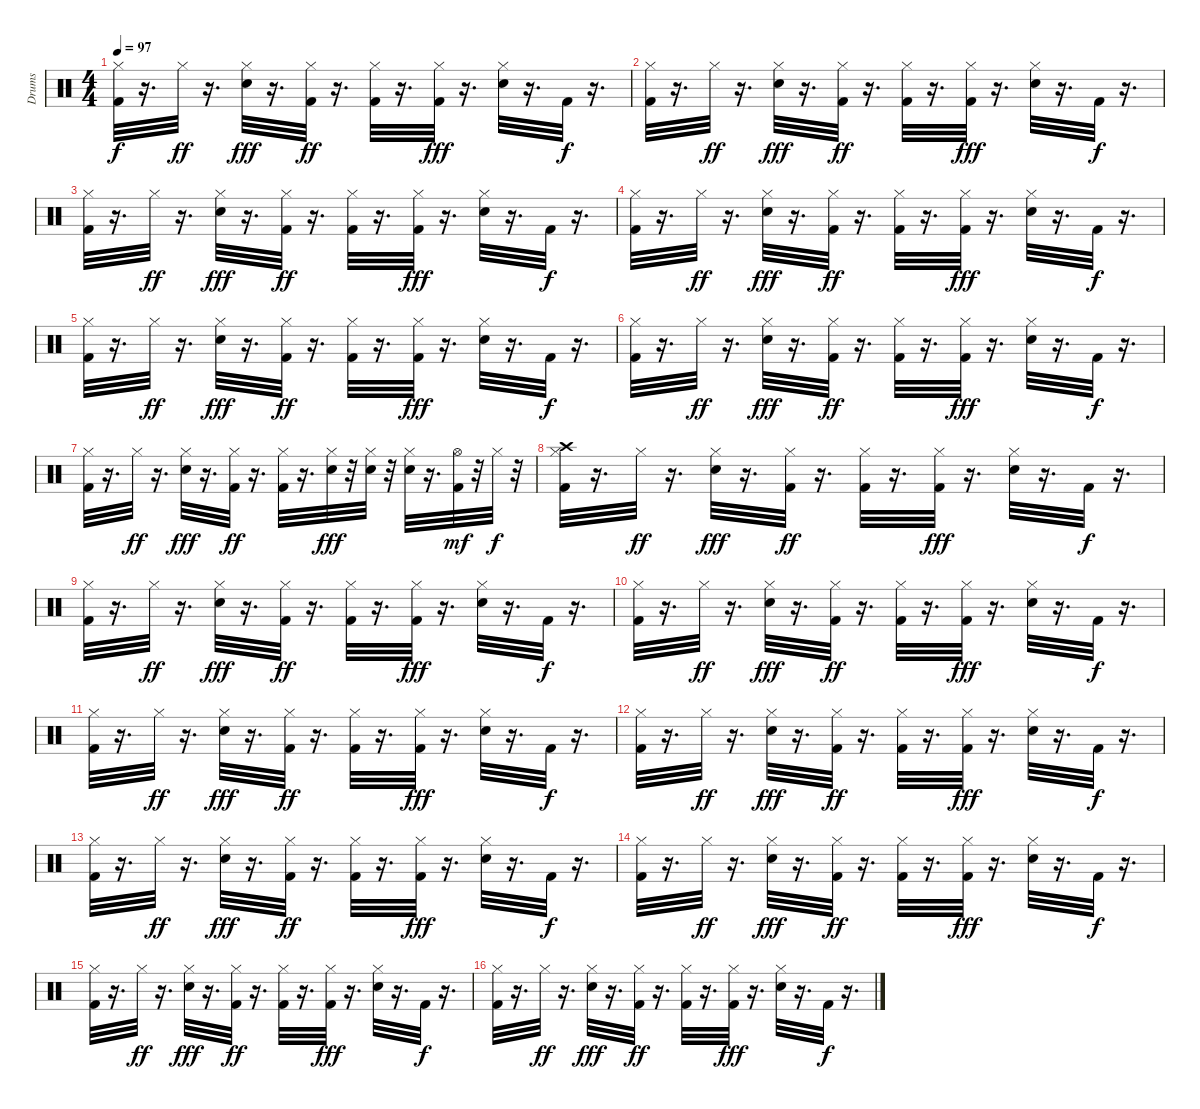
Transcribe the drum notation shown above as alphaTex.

\track ("Drums" "Drums") {instrument percussion}
\staff {score}
\articulation defaults
\ts (4 4)
\tempo 97
\clef neutral
\ks c
("Hi-Hat (closed)" "Kick (hit) 2").32{dy f} r.16{d} "Hi-Hat (closed)".32{dy ff} r.16{d} ("Hi-Hat (closed)" "Electric Snare (hit)").32{dy fff} r.16{d} ("Hi-Hat (closed)" "Kick (hit) 2").32{dy ff} r.16{d} ("Hi-Hat (closed)" "Kick (hit) 2").32 r.16{d} ("Hi-Hat (closed)" "Kick (hit) 2").32{dy fff} r.16{d} ("Hi-Hat (closed)" "Electric Snare (hit)").32 r.16{d} "Kick (hit) 2".32{dy f} r.16{d} |
("Hi-Hat (closed)" "Kick (hit) 2").32 r.16{d} "Hi-Hat (closed)".32{dy ff} r.16{d} ("Hi-Hat (closed)" "Electric Snare (hit)").32{dy fff} r.16{d} ("Hi-Hat (closed)" "Kick (hit) 2").32{dy ff} r.16{d} ("Hi-Hat (closed)" "Kick (hit) 2").32 r.16{d} ("Hi-Hat (closed)" "Kick (hit) 2").32{dy fff} r.16{d} ("Hi-Hat (closed)" "Electric Snare (hit)").32 r.16{d} "Kick (hit) 2".32{dy f} r.16{d} |
("Hi-Hat (closed)" "Kick (hit) 2").32 r.16{d} "Hi-Hat (closed)".32{dy ff} r.16{d} ("Hi-Hat (closed)" "Electric Snare (hit)").32{dy fff} r.16{d} ("Hi-Hat (closed)" "Kick (hit) 2").32{dy ff} r.16{d} ("Hi-Hat (closed)" "Kick (hit) 2").32 r.16{d} ("Hi-Hat (closed)" "Kick (hit) 2").32{dy fff} r.16{d} ("Hi-Hat (closed)" "Electric Snare (hit)").32 r.16{d} "Kick (hit) 2".32{dy f} r.16{d} |
("Hi-Hat (closed)" "Kick (hit) 2").32 r.16{d} "Hi-Hat (closed)".32{dy ff} r.16{d} ("Hi-Hat (closed)" "Electric Snare (hit)").32{dy fff} r.16{d} ("Hi-Hat (closed)" "Kick (hit) 2").32{dy ff} r.16{d} ("Hi-Hat (closed)" "Kick (hit) 2").32 r.16{d} ("Hi-Hat (closed)" "Kick (hit) 2").32{dy fff} r.16{d} ("Hi-Hat (closed)" "Electric Snare (hit)").32 r.16{d} "Kick (hit) 2".32{dy f} r.16{d} |
("Hi-Hat (closed)" "Kick (hit) 2").32 r.16{d} "Hi-Hat (closed)".32{dy ff} r.16{d} ("Hi-Hat (closed)" "Electric Snare (hit)").32{dy fff} r.16{d} ("Hi-Hat (closed)" "Kick (hit) 2").32{dy ff} r.16{d} ("Hi-Hat (closed)" "Kick (hit) 2").32 r.16{d} ("Hi-Hat (closed)" "Kick (hit) 2").32{dy fff} r.16{d} ("Hi-Hat (closed)" "Electric Snare (hit)").32 r.16{d} "Kick (hit) 2".32{dy f} r.16{d} |
("Hi-Hat (closed)" "Kick (hit) 2").32 r.16{d} "Hi-Hat (closed)".32{dy ff} r.16{d} ("Hi-Hat (closed)" "Electric Snare (hit)").32{dy fff} r.16{d} ("Hi-Hat (closed)" "Kick (hit) 2").32{dy ff} r.16{d} ("Hi-Hat (closed)" "Kick (hit) 2").32 r.16{d} ("Hi-Hat (closed)" "Kick (hit) 2").32{dy fff} r.16{d} ("Hi-Hat (closed)" "Electric Snare (hit)").32 r.16{d} "Kick (hit) 2".32{dy f} r.16{d} |
("Hi-Hat (closed)" "Kick (hit) 2").32 r.16{d} "Hi-Hat (closed)".32{dy ff} r.16{d} ("Hi-Hat (closed)" "Electric Snare (hit)").32{dy fff} r.16{d} ("Hi-Hat (closed)" "Kick (hit) 2").32{dy ff} r.16{d} ("Hi-Hat (closed)" "Kick (hit) 2").32 r.16{d} ("Electric Snare (hit)" "Hi-Hat (closed)").32{dy fff} r.32 ("Electric Snare (hit)" "Hi-Hat (closed)").32 r.32 ("Hi-Hat (closed)" "Electric Snare (hit)").32 r.16{d} ("Hi-Hat (open)" "Kick (hit) 2").32{dy mf} r.32 "Hi-Hat (closed)".32{dy f} r.32 |
("Crash high (hit)" "Hi-Hat (closed)" "Kick (hit) 2").32 r.16{d} "Hi-Hat (closed)".32{dy ff} r.16{d} ("Hi-Hat (closed)" "Electric Snare (hit)").32{dy fff} r.16{d} ("Hi-Hat (closed)" "Kick (hit) 2").32{dy ff} r.16{d} ("Hi-Hat (closed)" "Kick (hit) 2").32 r.16{d} ("Hi-Hat (closed)" "Kick (hit) 2").32{dy fff} r.16{d} ("Hi-Hat (closed)" "Electric Snare (hit)").32 r.16{d} "Kick (hit) 2".32{dy f} r.16{d} |
("Hi-Hat (closed)" "Kick (hit) 2").32 r.16{d} "Hi-Hat (closed)".32{dy ff} r.16{d} ("Hi-Hat (closed)" "Electric Snare (hit)").32{dy fff} r.16{d} ("Hi-Hat (closed)" "Kick (hit) 2").32{dy ff} r.16{d} ("Hi-Hat (closed)" "Kick (hit) 2").32 r.16{d} ("Hi-Hat (closed)" "Kick (hit) 2").32{dy fff} r.16{d} ("Hi-Hat (closed)" "Electric Snare (hit)").32 r.16{d} "Kick (hit) 2".32{dy f} r.16{d} |
("Hi-Hat (closed)" "Kick (hit) 2").32 r.16{d} "Hi-Hat (closed)".32{dy ff} r.16{d} ("Hi-Hat (closed)" "Electric Snare (hit)").32{dy fff} r.16{d} ("Hi-Hat (closed)" "Kick (hit) 2").32{dy ff} r.16{d} ("Hi-Hat (closed)" "Kick (hit) 2").32 r.16{d} ("Hi-Hat (closed)" "Kick (hit) 2").32{dy fff} r.16{d} ("Hi-Hat (closed)" "Electric Snare (hit)").32 r.16{d} "Kick (hit) 2".32{dy f} r.16{d} |
("Hi-Hat (closed)" "Kick (hit) 2").32 r.16{d} "Hi-Hat (closed)".32{dy ff} r.16{d} ("Hi-Hat (closed)" "Electric Snare (hit)").32{dy fff} r.16{d} ("Hi-Hat (closed)" "Kick (hit) 2").32{dy ff} r.16{d} ("Hi-Hat (closed)" "Kick (hit) 2").32 r.16{d} ("Hi-Hat (closed)" "Kick (hit) 2").32{dy fff} r.16{d} ("Hi-Hat (closed)" "Electric Snare (hit)").32 r.16{d} "Kick (hit) 2".32{dy f} r.16{d} |
("Hi-Hat (closed)" "Kick (hit) 2").32 r.16{d} "Hi-Hat (closed)".32{dy ff} r.16{d} ("Hi-Hat (closed)" "Electric Snare (hit)").32{dy fff} r.16{d} ("Hi-Hat (closed)" "Kick (hit) 2").32{dy ff} r.16{d} ("Hi-Hat (closed)" "Kick (hit) 2").32 r.16{d} ("Hi-Hat (closed)" "Kick (hit) 2").32{dy fff} r.16{d} ("Hi-Hat (closed)" "Electric Snare (hit)").32 r.16{d} "Kick (hit) 2".32{dy f} r.16{d} |
("Hi-Hat (closed)" "Kick (hit) 2").32 r.16{d} "Hi-Hat (closed)".32{dy ff} r.16{d} ("Hi-Hat (closed)" "Electric Snare (hit)").32{dy fff} r.16{d} ("Hi-Hat (closed)" "Kick (hit) 2").32{dy ff} r.16{d} ("Hi-Hat (closed)" "Kick (hit) 2").32 r.16{d} ("Hi-Hat (closed)" "Kick (hit) 2").32{dy fff} r.16{d} ("Hi-Hat (closed)" "Electric Snare (hit)").32 r.16{d} "Kick (hit) 2".32{dy f} r.16{d} |
("Hi-Hat (closed)" "Kick (hit) 2").32 r.16{d} "Hi-Hat (closed)".32{dy ff} r.16{d} ("Hi-Hat (closed)" "Electric Snare (hit)").32{dy fff} r.16{d} ("Hi-Hat (closed)" "Kick (hit) 2").32{dy ff} r.16{d} ("Hi-Hat (closed)" "Kick (hit) 2").32 r.16{d} ("Hi-Hat (closed)" "Kick (hit) 2").32{dy fff} r.16{d} ("Hi-Hat (closed)" "Electric Snare (hit)").32 r.16{d} "Kick (hit) 2".32{dy f} r.16{d} |
("Hi-Hat (closed)" "Kick (hit) 2").32 r.16{d} "Hi-Hat (closed)".32{dy ff} r.16{d} ("Hi-Hat (closed)" "Electric Snare (hit)").32{dy fff} r.16{d} ("Hi-Hat (closed)" "Kick (hit) 2").32{dy ff} r.16{d} ("Hi-Hat (closed)" "Kick (hit) 2").32 r.16{d} ("Hi-Hat (closed)" "Kick (hit) 2").32{dy fff} r.16{d} ("Hi-Hat (closed)" "Electric Snare (hit)").32 r.16{d} "Kick (hit) 2".32{dy f} r.16{d} |
("Hi-Hat (closed)" "Kick (hit) 2").32 r.16{d} "Hi-Hat (closed)".32{dy ff} r.16{d} ("Hi-Hat (closed)" "Electric Snare (hit)").32{dy fff} r.16{d} ("Hi-Hat (closed)" "Kick (hit) 2").32{dy ff} r.16{d} ("Hi-Hat (closed)" "Kick (hit) 2").32 r.16{d} ("Hi-Hat (closed)" "Kick (hit) 2").32{dy fff} r.16{d} ("Hi-Hat (closed)" "Electric Snare (hit)").32 r.16{d} "Kick (hit) 2".32{dy f} r.16{d}
